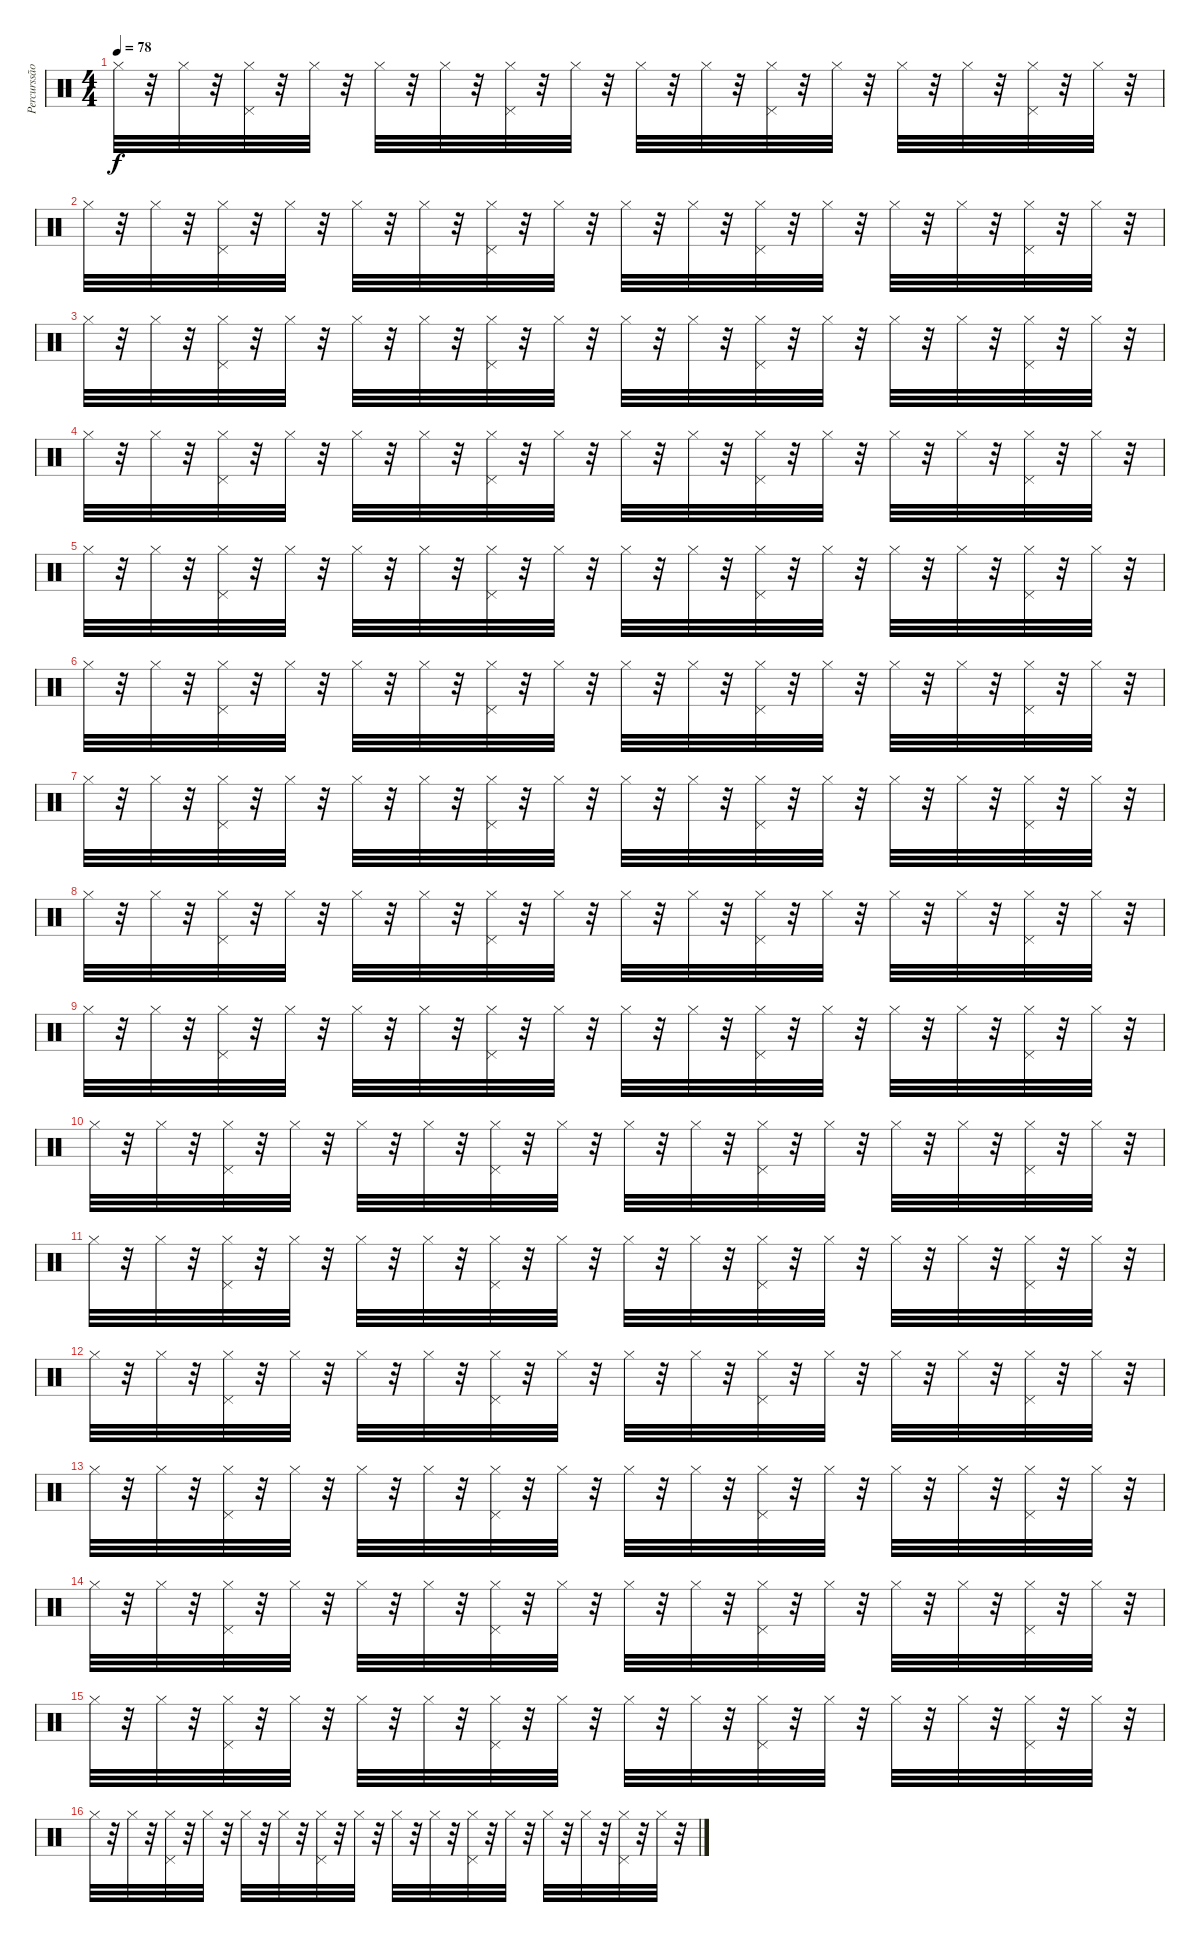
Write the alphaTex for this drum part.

\track ("Percurssão" "Percurssão") {instrument percussion}
\staff {score}
\articulation defaults
\ts (4 4)
\tempo 78
\clef neutral
\ks c "Hi-Hat (closed)".32{dy f}
r.32 "Hi-Hat (closed)".32 r.32 ("Hi-Hat (closed)" "Pedal Hi-Hat (hit)").32 r.32 "Hi-Hat (closed)".32 r.32 "Hi-Hat (closed)".32 r.32 "Hi-Hat (closed)".32 r.32 ("Hi-Hat (closed)" "Pedal Hi-Hat (hit)").32 r.32 "Hi-Hat (closed)".32 r.32 "Hi-Hat (closed)".32 r.32 "Hi-Hat (closed)".32 r.32 ("Hi-Hat (closed)" "Pedal Hi-Hat (hit)").32 r.32 "Hi-Hat (closed)".32 r.32 "Hi-Hat (closed)".32 r.32 "Hi-Hat (closed)".32 r.32 ("Hi-Hat (closed)" "Pedal Hi-Hat (hit)").32 r.32 "Hi-Hat (closed)".32 r.32 |
"Hi-Hat (closed)".32 r.32 "Hi-Hat (closed)".32 r.32 ("Hi-Hat (closed)" "Pedal Hi-Hat (hit)").32 r.32 "Hi-Hat (closed)".32 r.32 "Hi-Hat (closed)".32 r.32 "Hi-Hat (closed)".32 r.32 ("Hi-Hat (closed)" "Pedal Hi-Hat (hit)").32 r.32 "Hi-Hat (closed)".32 r.32 "Hi-Hat (closed)".32 r.32 "Hi-Hat (closed)".32 r.32 ("Hi-Hat (closed)" "Pedal Hi-Hat (hit)").32 r.32 "Hi-Hat (closed)".32 r.32 "Hi-Hat (closed)".32 r.32 "Hi-Hat (closed)".32 r.32 ("Hi-Hat (closed)" "Pedal Hi-Hat (hit)").32 r.32 "Hi-Hat (closed)".32 r.32 |
"Hi-Hat (closed)".32 r.32 "Hi-Hat (closed)".32 r.32 ("Hi-Hat (closed)" "Pedal Hi-Hat (hit)").32 r.32 "Hi-Hat (closed)".32 r.32 "Hi-Hat (closed)".32 r.32 "Hi-Hat (closed)".32 r.32 ("Hi-Hat (closed)" "Pedal Hi-Hat (hit)").32 r.32 "Hi-Hat (closed)".32 r.32 "Hi-Hat (closed)".32 r.32 "Hi-Hat (closed)".32 r.32 ("Hi-Hat (closed)" "Pedal Hi-Hat (hit)").32 r.32 "Hi-Hat (closed)".32 r.32 "Hi-Hat (closed)".32 r.32 "Hi-Hat (closed)".32 r.32 ("Hi-Hat (closed)" "Pedal Hi-Hat (hit)").32 r.32 "Hi-Hat (closed)".32 r.32 |
"Hi-Hat (closed)".32 r.32 "Hi-Hat (closed)".32 r.32 ("Hi-Hat (closed)" "Pedal Hi-Hat (hit)").32 r.32 "Hi-Hat (closed)".32 r.32 "Hi-Hat (closed)".32 r.32 "Hi-Hat (closed)".32 r.32 ("Hi-Hat (closed)" "Pedal Hi-Hat (hit)").32 r.32 "Hi-Hat (closed)".32 r.32 "Hi-Hat (closed)".32 r.32 "Hi-Hat (closed)".32 r.32 ("Hi-Hat (closed)" "Pedal Hi-Hat (hit)").32 r.32 "Hi-Hat (closed)".32 r.32 "Hi-Hat (closed)".32 r.32 "Hi-Hat (closed)".32 r.32 ("Hi-Hat (closed)" "Pedal Hi-Hat (hit)").32 r.32 "Hi-Hat (closed)".32 r.32 |
"Hi-Hat (closed)".32 r.32 "Hi-Hat (closed)".32 r.32 ("Hi-Hat (closed)" "Pedal Hi-Hat (hit)").32 r.32 "Hi-Hat (closed)".32 r.32 "Hi-Hat (closed)".32 r.32 "Hi-Hat (closed)".32 r.32 ("Hi-Hat (closed)" "Pedal Hi-Hat (hit)").32 r.32 "Hi-Hat (closed)".32 r.32 "Hi-Hat (closed)".32 r.32 "Hi-Hat (closed)".32 r.32 ("Hi-Hat (closed)" "Pedal Hi-Hat (hit)").32 r.32 "Hi-Hat (closed)".32 r.32 "Hi-Hat (closed)".32 r.32 "Hi-Hat (closed)".32 r.32 ("Hi-Hat (closed)" "Pedal Hi-Hat (hit)").32 r.32 "Hi-Hat (closed)".32 r.32 |
"Hi-Hat (closed)".32 r.32 "Hi-Hat (closed)".32 r.32 ("Hi-Hat (closed)" "Pedal Hi-Hat (hit)").32 r.32 "Hi-Hat (closed)".32 r.32 "Hi-Hat (closed)".32 r.32 "Hi-Hat (closed)".32 r.32 ("Hi-Hat (closed)" "Pedal Hi-Hat (hit)").32 r.32 "Hi-Hat (closed)".32 r.32 "Hi-Hat (closed)".32 r.32 "Hi-Hat (closed)".32 r.32 ("Hi-Hat (closed)" "Pedal Hi-Hat (hit)").32 r.32 "Hi-Hat (closed)".32 r.32 "Hi-Hat (closed)".32 r.32 "Hi-Hat (closed)".32 r.32 ("Hi-Hat (closed)" "Pedal Hi-Hat (hit)").32 r.32 "Hi-Hat (closed)".32 r.32 |
"Hi-Hat (closed)".32 r.32 "Hi-Hat (closed)".32 r.32 ("Hi-Hat (closed)" "Pedal Hi-Hat (hit)").32 r.32 "Hi-Hat (closed)".32 r.32 "Hi-Hat (closed)".32 r.32 "Hi-Hat (closed)".32 r.32 ("Hi-Hat (closed)" "Pedal Hi-Hat (hit)").32 r.32 "Hi-Hat (closed)".32 r.32 "Hi-Hat (closed)".32 r.32 "Hi-Hat (closed)".32 r.32 ("Hi-Hat (closed)" "Pedal Hi-Hat (hit)").32 r.32 "Hi-Hat (closed)".32 r.32 "Hi-Hat (closed)".32 r.32 "Hi-Hat (closed)".32 r.32 ("Hi-Hat (closed)" "Pedal Hi-Hat (hit)").32 r.32 "Hi-Hat (closed)".32 r.32 |
"Hi-Hat (closed)".32 r.32 "Hi-Hat (closed)".32 r.32 ("Hi-Hat (closed)" "Pedal Hi-Hat (hit)").32 r.32 "Hi-Hat (closed)".32 r.32 "Hi-Hat (closed)".32 r.32 "Hi-Hat (closed)".32 r.32 ("Hi-Hat (closed)" "Pedal Hi-Hat (hit)").32 r.32 "Hi-Hat (closed)".32 r.32 "Hi-Hat (closed)".32 r.32 "Hi-Hat (closed)".32 r.32 ("Hi-Hat (closed)" "Pedal Hi-Hat (hit)").32 r.32 "Hi-Hat (closed)".32 r.32 "Hi-Hat (closed)".32 r.32 "Hi-Hat (closed)".32 r.32 ("Hi-Hat (closed)" "Pedal Hi-Hat (hit)").32 r.32 "Hi-Hat (closed)".32 r.32 |
"Hi-Hat (closed)".32 r.32 "Hi-Hat (closed)".32 r.32 ("Hi-Hat (closed)" "Pedal Hi-Hat (hit)").32 r.32 "Hi-Hat (closed)".32 r.32 "Hi-Hat (closed)".32 r.32 "Hi-Hat (closed)".32 r.32 ("Hi-Hat (closed)" "Pedal Hi-Hat (hit)").32 r.32 "Hi-Hat (closed)".32 r.32 "Hi-Hat (closed)".32 r.32 "Hi-Hat (closed)".32 r.32 ("Hi-Hat (closed)" "Pedal Hi-Hat (hit)").32 r.32 "Hi-Hat (closed)".32 r.32 "Hi-Hat (closed)".32 r.32 "Hi-Hat (closed)".32 r.32 ("Hi-Hat (closed)" "Pedal Hi-Hat (hit)").32 r.32 "Hi-Hat (closed)".32 r.32 |
"Hi-Hat (closed)".32 r.32 "Hi-Hat (closed)".32 r.32 ("Hi-Hat (closed)" "Pedal Hi-Hat (hit)").32 r.32 "Hi-Hat (closed)".32 r.32 "Hi-Hat (closed)".32 r.32 "Hi-Hat (closed)".32 r.32 ("Hi-Hat (closed)" "Pedal Hi-Hat (hit)").32 r.32 "Hi-Hat (closed)".32 r.32 "Hi-Hat (closed)".32 r.32 "Hi-Hat (closed)".32 r.32 ("Hi-Hat (closed)" "Pedal Hi-Hat (hit)").32 r.32 "Hi-Hat (closed)".32 r.32 "Hi-Hat (closed)".32 r.32 "Hi-Hat (closed)".32 r.32 ("Hi-Hat (closed)" "Pedal Hi-Hat (hit)").32 r.32 "Hi-Hat (closed)".32 r.32 |
"Hi-Hat (closed)".32 r.32 "Hi-Hat (closed)".32 r.32 ("Hi-Hat (closed)" "Pedal Hi-Hat (hit)").32 r.32 "Hi-Hat (closed)".32 r.32 "Hi-Hat (closed)".32 r.32 "Hi-Hat (closed)".32 r.32 ("Hi-Hat (closed)" "Pedal Hi-Hat (hit)").32 r.32 "Hi-Hat (closed)".32 r.32 "Hi-Hat (closed)".32 r.32 "Hi-Hat (closed)".32 r.32 ("Hi-Hat (closed)" "Pedal Hi-Hat (hit)").32 r.32 "Hi-Hat (closed)".32 r.32 "Hi-Hat (closed)".32 r.32 "Hi-Hat (closed)".32 r.32 ("Hi-Hat (closed)" "Pedal Hi-Hat (hit)").32 r.32 "Hi-Hat (closed)".32 r.32 |
"Hi-Hat (closed)".32 r.32 "Hi-Hat (closed)".32 r.32 ("Hi-Hat (closed)" "Pedal Hi-Hat (hit)").32 r.32 "Hi-Hat (closed)".32 r.32 "Hi-Hat (closed)".32 r.32 "Hi-Hat (closed)".32 r.32 ("Hi-Hat (closed)" "Pedal Hi-Hat (hit)").32 r.32 "Hi-Hat (closed)".32 r.32 "Hi-Hat (closed)".32 r.32 "Hi-Hat (closed)".32 r.32 ("Hi-Hat (closed)" "Pedal Hi-Hat (hit)").32 r.32 "Hi-Hat (closed)".32 r.32 "Hi-Hat (closed)".32 r.32 "Hi-Hat (closed)".32 r.32 ("Hi-Hat (closed)" "Pedal Hi-Hat (hit)").32 r.32 "Hi-Hat (closed)".32 r.32 |
"Hi-Hat (closed)".32 r.32 "Hi-Hat (closed)".32 r.32 ("Hi-Hat (closed)" "Pedal Hi-Hat (hit)").32 r.32 "Hi-Hat (closed)".32 r.32 "Hi-Hat (closed)".32 r.32 "Hi-Hat (closed)".32 r.32 ("Hi-Hat (closed)" "Pedal Hi-Hat (hit)").32 r.32 "Hi-Hat (closed)".32 r.32 "Hi-Hat (closed)".32 r.32 "Hi-Hat (closed)".32 r.32 ("Hi-Hat (closed)" "Pedal Hi-Hat (hit)").32 r.32 "Hi-Hat (closed)".32 r.32 "Hi-Hat (closed)".32 r.32 "Hi-Hat (closed)".32 r.32 ("Hi-Hat (closed)" "Pedal Hi-Hat (hit)").32 r.32 "Hi-Hat (closed)".32 r.32 |
"Hi-Hat (closed)".32 r.32 "Hi-Hat (closed)".32 r.32 ("Hi-Hat (closed)" "Pedal Hi-Hat (hit)").32 r.32 "Hi-Hat (closed)".32 r.32 "Hi-Hat (closed)".32 r.32 "Hi-Hat (closed)".32 r.32 ("Hi-Hat (closed)" "Pedal Hi-Hat (hit)").32 r.32 "Hi-Hat (closed)".32 r.32 "Hi-Hat (closed)".32 r.32 "Hi-Hat (closed)".32 r.32 ("Hi-Hat (closed)" "Pedal Hi-Hat (hit)").32 r.32 "Hi-Hat (closed)".32 r.32 "Hi-Hat (closed)".32 r.32 "Hi-Hat (closed)".32 r.32 ("Hi-Hat (closed)" "Pedal Hi-Hat (hit)").32 r.32 "Hi-Hat (closed)".32 r.32 |
"Hi-Hat (closed)".32 r.32 "Hi-Hat (closed)".32 r.32 ("Hi-Hat (closed)" "Pedal Hi-Hat (hit)").32 r.32 "Hi-Hat (closed)".32 r.32 "Hi-Hat (closed)".32 r.32 "Hi-Hat (closed)".32 r.32 ("Hi-Hat (closed)" "Pedal Hi-Hat (hit)").32 r.32 "Hi-Hat (closed)".32 r.32 "Hi-Hat (closed)".32 r.32 "Hi-Hat (closed)".32 r.32 ("Hi-Hat (closed)" "Pedal Hi-Hat (hit)").32 r.32 "Hi-Hat (closed)".32 r.32 "Hi-Hat (closed)".32 r.32 "Hi-Hat (closed)".32 r.32 ("Hi-Hat (closed)" "Pedal Hi-Hat (hit)").32 r.32 "Hi-Hat (closed)".32 r.32 |
"Hi-Hat (closed)".32 r.32 "Hi-Hat (closed)".32 r.32 ("Hi-Hat (closed)" "Pedal Hi-Hat (hit)").32 r.32 "Hi-Hat (closed)".32 r.32 "Hi-Hat (closed)".32 r.32 "Hi-Hat (closed)".32 r.32 ("Hi-Hat (closed)" "Pedal Hi-Hat (hit)").32 r.32 "Hi-Hat (closed)".32 r.32 "Hi-Hat (closed)".32 r.32 "Hi-Hat (closed)".32 r.32 ("Hi-Hat (closed)" "Pedal Hi-Hat (hit)").32 r.32 "Hi-Hat (closed)".32 r.32 "Hi-Hat (closed)".32 r.32 "Hi-Hat (closed)".32 r.32 ("Hi-Hat (closed)" "Pedal Hi-Hat (hit)").32 r.32 "Hi-Hat (closed)".32 r.32
